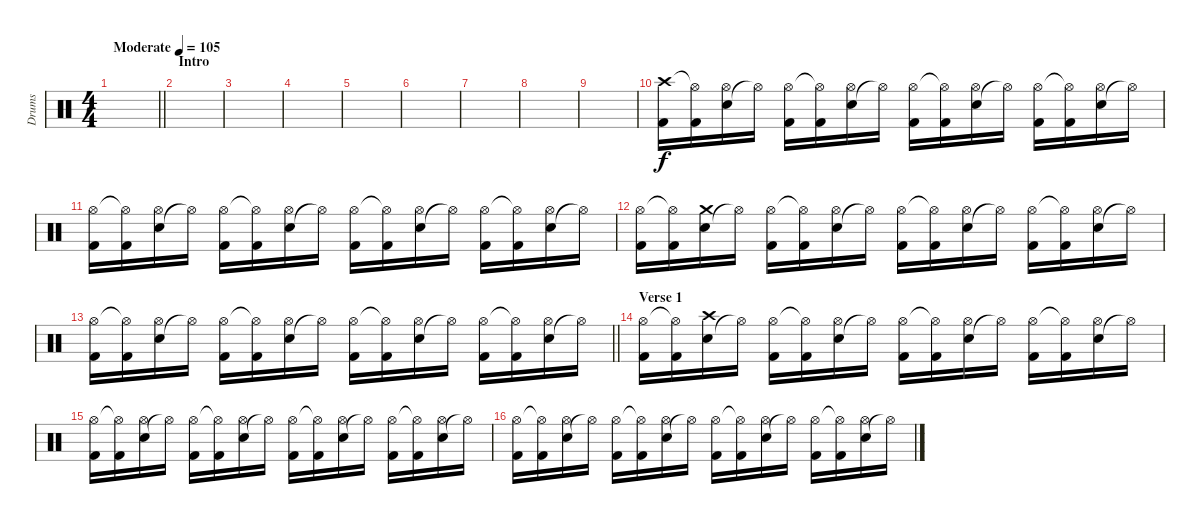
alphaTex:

\track ("Drums" "Drums") {instrument percussion}
\staff {score}
\articulation defaults
\ts (4 4)
\tempo (105 "Moderate")
\clef neutral
\barLineRight lightlight
\ks c
|
\section ("" "Intro")
|
|
|
|
|
|
|
|
("Kick (hit) 2" "Crash high (hit)").16 ("Kick (hit) 2" "Hi-Hat (open)"{t}).16 ("Snare (hit) 2" "Hi-Hat (open)").16 "Hi-Hat (open)"{t}.16 ("Kick (hit) 2" "Hi-Hat (open)").16 ("Kick (hit) 2" "Hi-Hat (open)"{t}).16 ("Snare (hit) 2" "Hi-Hat (open)").16 "Hi-Hat (open)"{t}.16 ("Kick (hit) 2" "Hi-Hat (open)").16 ("Kick (hit) 2" "Hi-Hat (open)"{t}).16 ("Snare (hit) 2" "Hi-Hat (open)").16 "Hi-Hat (open)"{t}.16 ("Kick (hit) 2" "Hi-Hat (open)").16 ("Kick (hit) 2" "Hi-Hat (open)"{t}).16 ("Snare (hit) 2" "Hi-Hat (open)").16 "Hi-Hat (open)"{t}.16 |
("Kick (hit) 2" "Hi-Hat (open)").16 ("Kick (hit) 2" "Hi-Hat (open)"{t}).16 ("Snare (hit) 2" "Hi-Hat (open)").16 "Hi-Hat (open)"{t}.16 ("Kick (hit) 2" "Hi-Hat (open)").16 ("Kick (hit) 2" "Hi-Hat (open)"{t}).16 ("Snare (hit) 2" "Hi-Hat (open)").16 "Hi-Hat (open)"{t}.16 ("Kick (hit) 2" "Hi-Hat (open)").16 ("Kick (hit) 2" "Hi-Hat (open)"{t}).16 ("Snare (hit) 2" "Hi-Hat (open)").16 "Hi-Hat (open)"{t}.16 ("Kick (hit) 2" "Hi-Hat (open)").16 ("Kick (hit) 2" "Hi-Hat (open)"{t}).16 ("Snare (hit) 2" "Hi-Hat (open)").16 "Hi-Hat (open)"{t}.16 |
("Kick (hit) 2" "Hi-Hat (open)").16 ("Kick (hit) 2" "Hi-Hat (open)"{t}).16 ("Snare (hit) 2" "Crash medium (hit)").16 "Hi-Hat (open)"{t}.16 ("Kick (hit) 2" "Hi-Hat (open)").16 ("Kick (hit) 2" "Hi-Hat (open)"{t}).16 ("Snare (hit) 2" "Hi-Hat (open)").16 "Hi-Hat (open)"{t}.16 ("Kick (hit) 2" "Hi-Hat (open)").16 ("Kick (hit) 2" "Hi-Hat (open)"{t}).16 ("Snare (hit) 2" "Hi-Hat (open)").16 "Hi-Hat (open)"{t}.16 ("Kick (hit) 2" "Hi-Hat (open)").16 ("Kick (hit) 2" "Hi-Hat (open)"{t}).16 ("Snare (hit) 2" "Hi-Hat (open)").16 "Hi-Hat (open)"{t}.16 |
\barLineRight lightlight
("Kick (hit) 2" "Hi-Hat (open)").16 ("Kick (hit) 2" "Hi-Hat (open)"{t}).16 ("Snare (hit) 2" "Hi-Hat (open)").16 "Hi-Hat (open)"{t}.16 ("Kick (hit) 2" "Hi-Hat (open)").16 ("Kick (hit) 2" "Hi-Hat (open)"{t}).16 ("Snare (hit) 2" "Hi-Hat (open)").16 "Hi-Hat (open)"{t}.16 ("Kick (hit) 2" "Hi-Hat (open)").16 ("Kick (hit) 2" "Hi-Hat (open)"{t}).16 ("Snare (hit) 2" "Hi-Hat (open)").16 "Hi-Hat (open)"{t}.16 ("Kick (hit) 2" "Hi-Hat (open)").16 ("Kick (hit) 2" "Hi-Hat (open)"{t}).16 ("Snare (hit) 2" "Hi-Hat (open)").16 "Hi-Hat (open)"{t}.16 |
\section ("" "Verse 1")
("Kick (hit) 2" "Hi-Hat (open)").16 ("Kick (hit) 2" "Hi-Hat (open)"{t}).16 ("Snare (hit) 2" "Crash high (hit)").16 "Hi-Hat (open)"{t}.16 ("Kick (hit) 2" "Hi-Hat (open)").16 ("Kick (hit) 2" "Hi-Hat (open)"{t}).16 ("Snare (hit) 2" "Hi-Hat (open)").16 "Hi-Hat (open)"{t}.16 ("Kick (hit) 2" "Hi-Hat (open)").16 ("Kick (hit) 2" "Hi-Hat (open)"{t}).16 ("Snare (hit) 2" "Hi-Hat (open)").16 "Hi-Hat (open)"{t}.16 ("Kick (hit) 2" "Hi-Hat (open)").16 ("Kick (hit) 2" "Hi-Hat (open)"{t}).16 ("Snare (hit) 2" "Hi-Hat (open)").16 "Hi-Hat (open)"{t}.16 |
("Kick (hit) 2" "Hi-Hat (open)").16 ("Kick (hit) 2" "Hi-Hat (open)"{t}).16 ("Snare (hit) 2" "Hi-Hat (open)").16 "Hi-Hat (open)"{t}.16 ("Kick (hit) 2" "Hi-Hat (open)").16 ("Kick (hit) 2" "Hi-Hat (open)"{t}).16 ("Snare (hit) 2" "Hi-Hat (open)").16 "Hi-Hat (open)"{t}.16 ("Kick (hit) 2" "Hi-Hat (open)").16 ("Kick (hit) 2" "Hi-Hat (open)"{t}).16 ("Snare (hit) 2" "Hi-Hat (open)").16 "Hi-Hat (open)"{t}.16 ("Kick (hit) 2" "Hi-Hat (open)").16 ("Kick (hit) 2" "Hi-Hat (open)"{t}).16 ("Snare (hit) 2" "Hi-Hat (open)").16 "Hi-Hat (open)"{t}.16 |
("Kick (hit) 2" "Hi-Hat (open)").16 ("Kick (hit) 2" "Hi-Hat (open)"{t}).16 ("Snare (hit) 2" "Hi-Hat (open)").16 "Hi-Hat (open)"{t}.16 ("Kick (hit) 2" "Hi-Hat (open)").16 ("Kick (hit) 2" "Hi-Hat (open)"{t}).16 ("Snare (hit) 2" "Hi-Hat (open)").16 "Hi-Hat (open)"{t}.16 ("Kick (hit) 2" "Hi-Hat (open)").16 ("Kick (hit) 2" "Hi-Hat (open)"{t}).16 ("Snare (hit) 2" "Hi-Hat (open)").16 "Hi-Hat (open)"{t}.16 ("Kick (hit) 2" "Hi-Hat (open)").16 ("Kick (hit) 2" "Hi-Hat (open)"{t}).16 ("Snare (hit) 2" "Hi-Hat (open)").16 "Hi-Hat (open)"{t}.16
